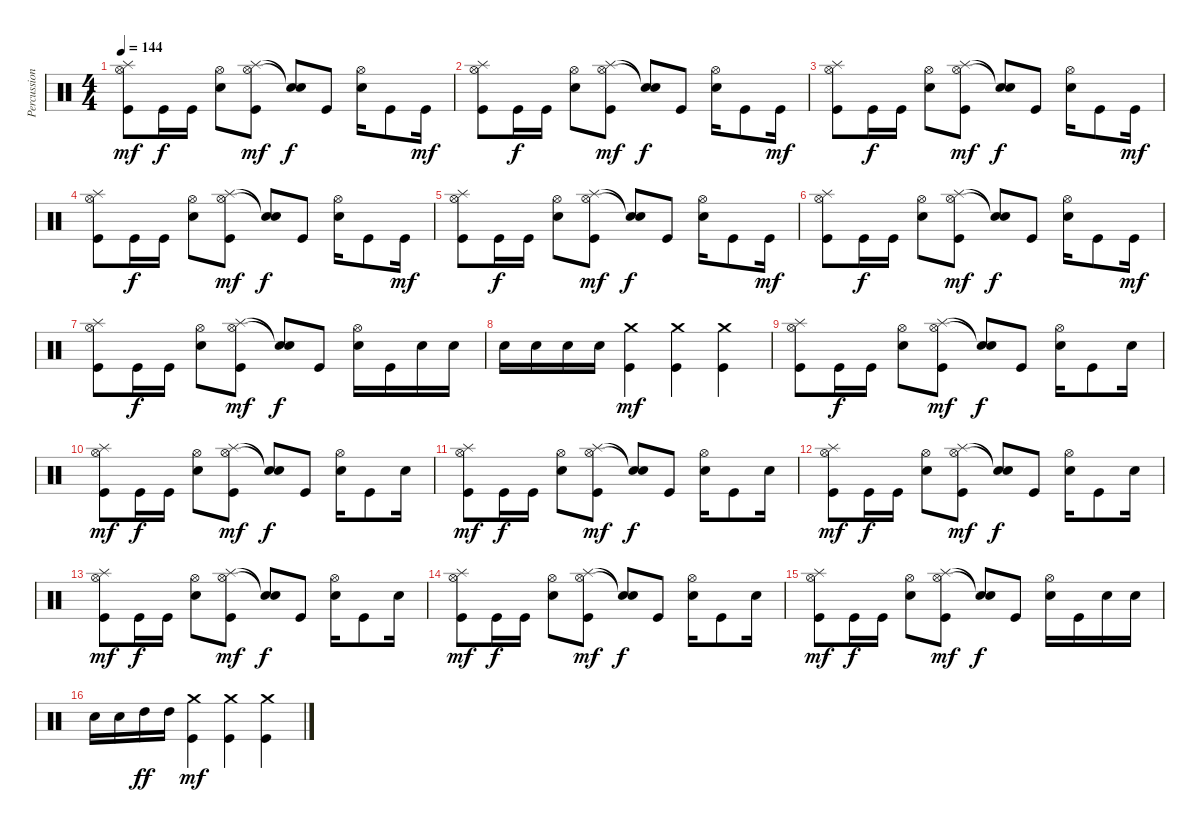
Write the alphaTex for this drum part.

\track ("Percussion" "Percussion") {instrument percussion}
\staff {score}
\articulation defaults
\ts (4 4)
\tempo 144
\clef neutral
\ks c
("Hi-Hat (open)" "Splash (hit)" "Kick (hit)").8{dy mf} "Kick (hit)".16{dy f} "Kick (hit)".16 ("Hi-Hat (open)" "Snare (hit) 2").8 ("Hi-Hat (open)" "Splash (hit)" "Kick (hit)").8{dy mf} ("Snare (hit)"{t} "Snare (hit)"{t}).8{dy f} "Kick (hit)".8 ("Hi-Hat (open)" "Snare (hit) 2").16 "Kick (hit)".8 "Kick (hit)".16{dy mf} |
("Hi-Hat (open)" "Splash (hit)" "Kick (hit)").8 "Kick (hit)".16{dy f} "Kick (hit)".16 ("Hi-Hat (open)" "Snare (hit) 2").8 ("Hi-Hat (open)" "Splash (hit)" "Kick (hit)").8{dy mf} ("Snare (hit)"{t} "Snare (hit)"{t}).8{dy f} "Kick (hit)".8 ("Hi-Hat (open)" "Snare (hit) 2").16 "Kick (hit)".8 "Kick (hit)".16{dy mf} |
("Hi-Hat (open)" "Splash (hit)" "Kick (hit)").8 "Kick (hit)".16{dy f} "Kick (hit)".16 ("Hi-Hat (open)" "Snare (hit) 2").8 ("Hi-Hat (open)" "Splash (hit)" "Kick (hit)").8{dy mf} ("Snare (hit)"{t} "Snare (hit)"{t}).8{dy f} "Kick (hit)".8 ("Hi-Hat (open)" "Snare (hit) 2").16 "Kick (hit)".8 "Kick (hit)".16{dy mf} |
("Hi-Hat (open)" "Splash (hit)" "Kick (hit)").8 "Kick (hit)".16{dy f} "Kick (hit)".16 ("Hi-Hat (open)" "Snare (hit) 2").8 ("Hi-Hat (open)" "Splash (hit)" "Kick (hit)").8{dy mf} ("Snare (hit)"{t} "Snare (hit)"{t}).8{dy f} "Kick (hit)".8 ("Hi-Hat (open)" "Snare (hit) 2").16 "Kick (hit)".8 "Kick (hit)".16{dy mf} |
("Hi-Hat (open)" "Splash (hit)" "Kick (hit)").8 "Kick (hit)".16{dy f} "Kick (hit)".16 ("Hi-Hat (open)" "Snare (hit) 2").8 ("Hi-Hat (open)" "Splash (hit)" "Kick (hit)").8{dy mf} ("Snare (hit)"{t} "Snare (hit)"{t}).8{dy f} "Kick (hit)".8 ("Hi-Hat (open)" "Snare (hit) 2").16 "Kick (hit)".8 "Kick (hit)".16{dy mf} |
("Hi-Hat (open)" "Splash (hit)" "Kick (hit)").8 "Kick (hit)".16{dy f} "Kick (hit)".16 ("Hi-Hat (open)" "Snare (hit) 2").8 ("Hi-Hat (open)" "Splash (hit)" "Kick (hit)").8{dy mf} ("Snare (hit)"{t} "Snare (hit)"{t}).8{dy f} "Kick (hit)".8 ("Hi-Hat (open)" "Snare (hit) 2").16 "Kick (hit)".8 "Kick (hit)".16{dy mf} |
("Hi-Hat (open)" "Splash (hit)" "Kick (hit)").8 "Kick (hit)".16{dy f} "Kick (hit)".16 ("Hi-Hat (open)" "Snare (hit) 2").8 ("Hi-Hat (open)" "Splash (hit)" "Kick (hit)").8{dy mf} ("Snare (hit)"{t} "Snare (hit)"{t}).8{dy f} "Kick (hit)".8 ("Hi-Hat (open)" "Snare (hit) 2").16 "Kick (hit)".16 "Snare (hit) 2".16 "Snare (hit) 2".16 |
"Snare (hit) 2".16 "Snare (hit) 2".16 "Snare (hit) 2".16 "Snare (hit) 2".16 ("Crash medium (hit)" "Kick (hit)").4{dy mf} ("Crash medium (hit)" "Kick (hit)").4 ("Crash medium (hit)" "Kick (hit)").4 |
("Hi-Hat (open)" "Splash (hit)" "Kick (hit)").8 "Kick (hit)".16{dy f} "Kick (hit)".16 ("Hi-Hat (open)" "Snare (hit) 2").8 ("Hi-Hat (open)" "Splash (hit)" "Kick (hit)").8{dy mf} ("Snare (hit)"{t} "Snare (hit)"{t}).8{dy f} "Kick (hit)".8 ("Hi-Hat (open)" "Snare (hit) 2").16 "Kick (hit)".8 "Snare (hit) 2".16 |
("Hi-Hat (open)" "Splash (hit)" "Kick (hit)").8{dy mf} "Kick (hit)".16{dy f} "Kick (hit)".16 ("Hi-Hat (open)" "Snare (hit) 2").8 ("Hi-Hat (open)" "Splash (hit)" "Kick (hit)").8{dy mf} ("Snare (hit)"{t} "Snare (hit)"{t}).8{dy f} "Kick (hit)".8 ("Hi-Hat (open)" "Snare (hit) 2").16 "Kick (hit)".8 "Snare (hit) 2".16 |
("Hi-Hat (open)" "Splash (hit)" "Kick (hit)").8{dy mf} "Kick (hit)".16{dy f} "Kick (hit)".16 ("Hi-Hat (open)" "Snare (hit) 2").8 ("Hi-Hat (open)" "Splash (hit)" "Kick (hit)").8{dy mf} ("Snare (hit)"{t} "Snare (hit)"{t}).8{dy f} "Kick (hit)".8 ("Hi-Hat (open)" "Snare (hit) 2").16 "Kick (hit)".8 "Snare (hit) 2".16 |
("Hi-Hat (open)" "Splash (hit)" "Kick (hit)").8{dy mf} "Kick (hit)".16{dy f} "Kick (hit)".16 ("Hi-Hat (open)" "Snare (hit) 2").8 ("Hi-Hat (open)" "Splash (hit)" "Kick (hit)").8{dy mf} ("Snare (hit)"{t} "Snare (hit)"{t}).8{dy f} "Kick (hit)".8 ("Hi-Hat (open)" "Snare (hit) 2").16 "Kick (hit)".8 "Snare (hit) 2".16 |
("Hi-Hat (open)" "Splash (hit)" "Kick (hit)").8{dy mf} "Kick (hit)".16{dy f} "Kick (hit)".16 ("Hi-Hat (open)" "Snare (hit) 2").8 ("Hi-Hat (open)" "Splash (hit)" "Kick (hit)").8{dy mf} ("Snare (hit)"{t} "Snare (hit)"{t}).8{dy f} "Kick (hit)".8 ("Hi-Hat (open)" "Snare (hit) 2").16 "Kick (hit)".8 "Snare (hit) 2".16 |
("Hi-Hat (open)" "Splash (hit)" "Kick (hit)").8{dy mf} "Kick (hit)".16{dy f} "Kick (hit)".16 ("Hi-Hat (open)" "Snare (hit) 2").8 ("Hi-Hat (open)" "Splash (hit)" "Kick (hit)").8{dy mf} ("Snare (hit)"{t} "Snare (hit)"{t}).8{dy f} "Kick (hit)".8 ("Hi-Hat (open)" "Snare (hit) 2").16 "Kick (hit)".8 "Snare (hit) 2".16 |
("Hi-Hat (open)" "Splash (hit)" "Kick (hit)").8{dy mf} "Kick (hit)".16{dy f} "Kick (hit)".16 ("Hi-Hat (open)" "Snare (hit) 2").8 ("Hi-Hat (open)" "Splash (hit)" "Kick (hit)").8{dy mf} ("Snare (hit)"{t} "Snare (hit)"{t}).8{dy f} "Kick (hit)".8 ("Hi-Hat (open)" "Snare (hit) 2").16 "Kick (hit)".16 "Snare (hit) 2".16 "Snare (hit) 2".16 |
"Snare (hit) 2".16 "Snare (hit) 2".16 "High Tom (hit)".16{dy ff} "High Tom (hit)".16 ("Crash medium (hit)" "Kick (hit)").4{dy mf} ("Crash medium (hit)" "Kick (hit)").4 ("Crash medium (hit)" "Kick (hit)").4
